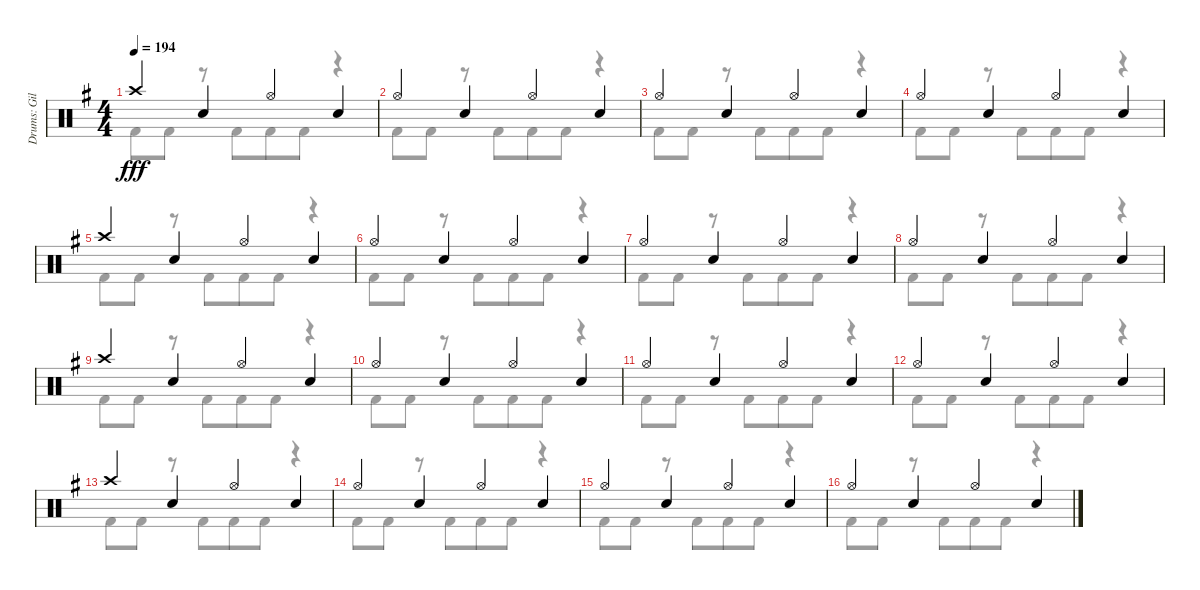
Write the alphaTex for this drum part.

\track ("Drums: Gil" "Drums: Gil") {instrument percussion}
\staff {score}
\articulation defaults
\voice
\ts (4 4)
\tempo 194
\clef neutral
\ks g "Crash high (hit)".4{dy fff} "Snare (hit) 2".4 "Hi-Hat (open)".4 "Snare (hit) 2".4
|
"Hi-Hat (open)".4 "Snare (hit) 2".4 "Hi-Hat (open)".4 "Snare (hit) 2".4 |
"Hi-Hat (open)".4 "Snare (hit) 2".4 "Hi-Hat (open)".4 "Snare (hit) 2".4 |
"Hi-Hat (open)".4 "Snare (hit) 2".4 "Hi-Hat (open)".4 "Snare (hit) 2".4 |
"Crash high (hit)".4 "Snare (hit) 2".4 "Hi-Hat (open)".4 "Snare (hit) 2".4 |
"Hi-Hat (open)".4 "Snare (hit) 2".4 "Hi-Hat (open)".4 "Snare (hit) 2".4 |
"Hi-Hat (open)".4 "Snare (hit) 2".4 "Hi-Hat (open)".4 "Snare (hit) 2".4 |
"Hi-Hat (open)".4 "Snare (hit) 2".4 "Hi-Hat (open)".4 "Snare (hit) 2".4 |
"Crash high (hit)".4 "Snare (hit) 2".4 "Hi-Hat (open)".4 "Snare (hit) 2".4 |
"Hi-Hat (open)".4 "Snare (hit) 2".4 "Hi-Hat (open)".4 "Snare (hit) 2".4 |
"Hi-Hat (open)".4 "Snare (hit) 2".4 "Hi-Hat (open)".4 "Snare (hit) 2".4 |
"Hi-Hat (open)".4 "Snare (hit) 2".4 "Hi-Hat (open)".4 "Snare (hit) 2".4 |
"Crash high (hit)".4 "Snare (hit) 2".4 "Hi-Hat (open)".4 "Snare (hit) 2".4 |
"Hi-Hat (open)".4 "Snare (hit) 2".4 "Hi-Hat (open)".4 "Snare (hit) 2".4 |
"Hi-Hat (open)".4 "Snare (hit) 2".4 "Hi-Hat (open)".4 "Snare (hit) 2".4 |
"Hi-Hat (open)".4 "Snare (hit) 2".4 "Hi-Hat (open)".4 "Snare (hit) 2".4
\voice
\clef neutral
\ottava regular
\simile none
\ks g "Kick (hit) 2".8{dy fff} "Kick (hit) 2".8
r.8 "Kick (hit) 2".8{beam merge} "Kick (hit) 2".8 "Kick (hit) 2".8 r.4 |
"Kick (hit) 2".8 "Kick (hit) 2".8 r.8 "Kick (hit) 2".8{beam merge} "Kick (hit) 2".8 "Kick (hit) 2".8 r.4 |
"Kick (hit) 2".8 "Kick (hit) 2".8 r.8 "Kick (hit) 2".8{beam merge} "Kick (hit) 2".8 "Kick (hit) 2".8 r.4 |
"Kick (hit) 2".8 "Kick (hit) 2".8 r.8 "Kick (hit) 2".8{beam merge} "Kick (hit) 2".8 "Kick (hit) 2".8 r.4 |
"Kick (hit) 2".8 "Kick (hit) 2".8 r.8 "Kick (hit) 2".8{beam merge} "Kick (hit) 2".8 "Kick (hit) 2".8 r.4 |
"Kick (hit) 2".8 "Kick (hit) 2".8 r.8 "Kick (hit) 2".8{beam merge} "Kick (hit) 2".8 "Kick (hit) 2".8 r.4 |
"Kick (hit) 2".8 "Kick (hit) 2".8 r.8 "Kick (hit) 2".8{beam merge} "Kick (hit) 2".8 "Kick (hit) 2".8 r.4 |
"Kick (hit) 2".8 "Kick (hit) 2".8 r.8 "Kick (hit) 2".8{beam merge} "Kick (hit) 2".8 "Kick (hit) 2".8 r.4 |
"Kick (hit) 2".8 "Kick (hit) 2".8 r.8 "Kick (hit) 2".8{beam merge} "Kick (hit) 2".8 "Kick (hit) 2".8 r.4 |
"Kick (hit) 2".8 "Kick (hit) 2".8 r.8 "Kick (hit) 2".8{beam merge} "Kick (hit) 2".8 "Kick (hit) 2".8 r.4 |
"Kick (hit) 2".8 "Kick (hit) 2".8 r.8 "Kick (hit) 2".8{beam merge} "Kick (hit) 2".8 "Kick (hit) 2".8 r.4 |
"Kick (hit) 2".8 "Kick (hit) 2".8 r.8 "Kick (hit) 2".8{beam merge} "Kick (hit) 2".8 "Kick (hit) 2".8 r.4 |
"Kick (hit) 2".8 "Kick (hit) 2".8 r.8 "Kick (hit) 2".8{beam merge} "Kick (hit) 2".8 "Kick (hit) 2".8 r.4 |
"Kick (hit) 2".8 "Kick (hit) 2".8 r.8 "Kick (hit) 2".8{beam merge} "Kick (hit) 2".8 "Kick (hit) 2".8 r.4 |
"Kick (hit) 2".8 "Kick (hit) 2".8 r.8 "Kick (hit) 2".8{beam merge} "Kick (hit) 2".8 "Kick (hit) 2".8 r.4 |
"Kick (hit) 2".8 "Kick (hit) 2".8 r.8 "Kick (hit) 2".8{beam merge} "Kick (hit) 2".8 "Kick (hit) 2".8 r.4
